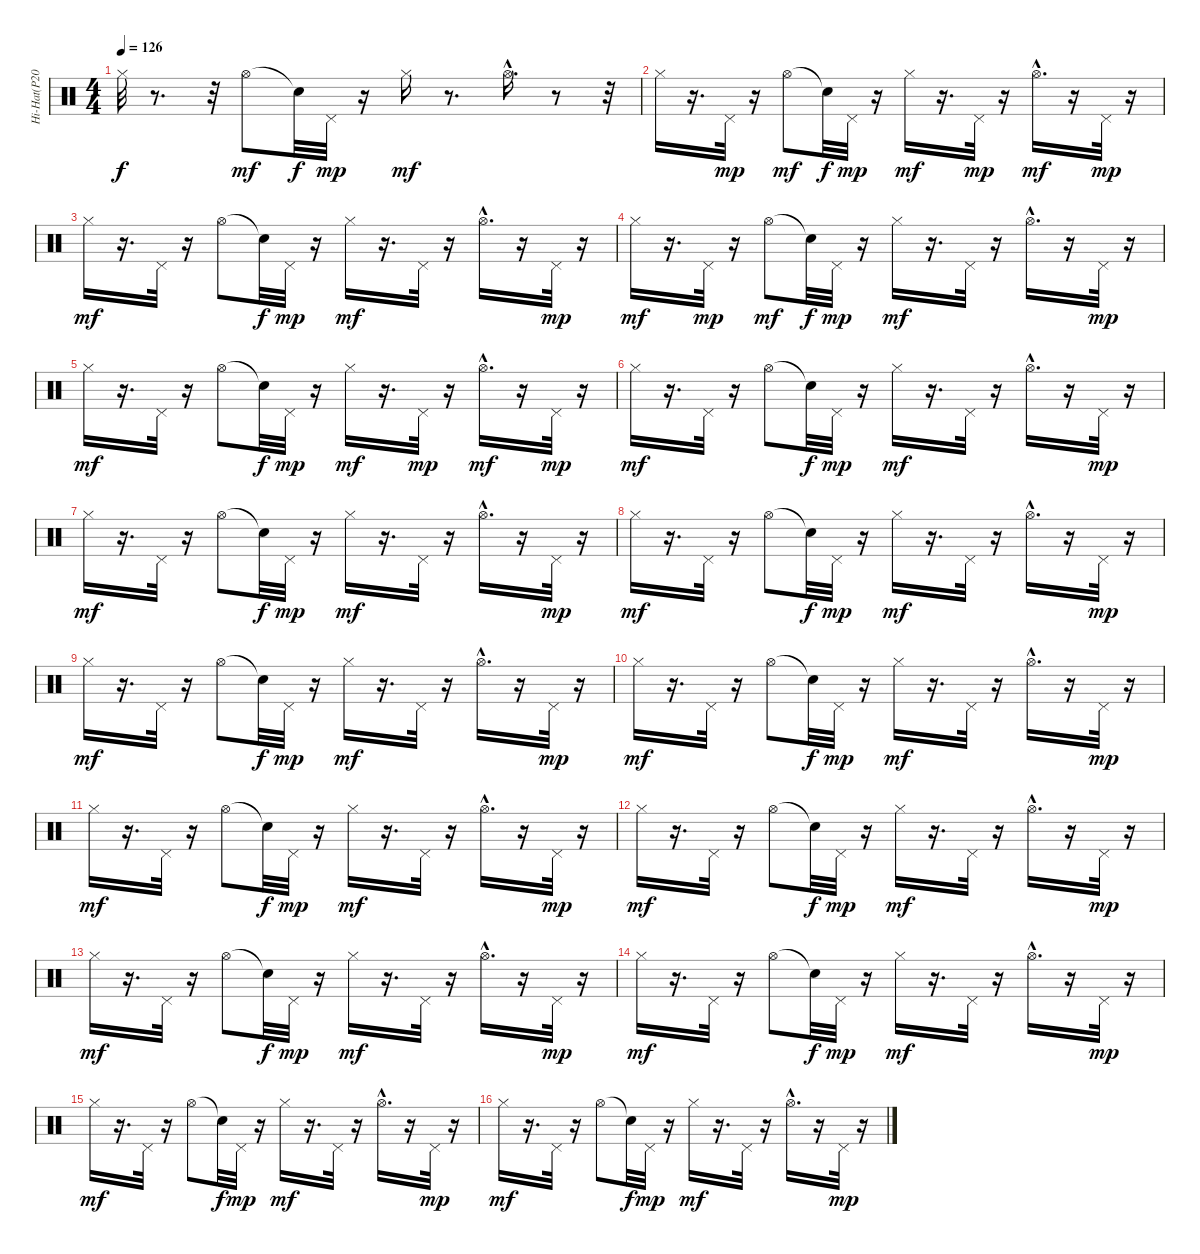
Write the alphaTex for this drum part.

\track ("Hi-Hat(P201)" "Hi-Hat(P20") {instrument percussion}
\staff {score}
\articulation defaults
\ts (4 4)
\tempo 126
\clef neutral
\ks c "Hi-Hat (closed)".32{dy f}
r.8{d} r.32 "Hi-Hat (open)".8{dy mf} "Snare (hit)"{t}.32{dy f} "Pedal Hi-Hat (hit)".32{dy mp} r.16 "Hi-Hat (closed)".16{dy mf} r.8{d} "Hi-Hat (open)"{hac}.16{d} r.8 r.32 |
"Hi-Hat (closed)".16 r.16{d} "Pedal Hi-Hat (hit)".32{dy mp} r.16 "Hi-Hat (open)".8{dy mf} "Snare (hit)"{t}.32{dy f} "Pedal Hi-Hat (hit)".32{dy mp} r.16 "Hi-Hat (closed)".16{dy mf} r.16{d} "Pedal Hi-Hat (hit)".32{dy mp} r.16 "Hi-Hat (open)"{hac}.16{d dy mf} r.16 "Pedal Hi-Hat (hit)".32{dy mp} r.16 |
"Hi-Hat (closed)".16{dy mf} r.16{d} "Pedal Hi-Hat (hit)".32 r.16 "Hi-Hat (open)".8 "Snare (hit)"{t}.32{dy f} "Pedal Hi-Hat (hit)".32{dy mp} r.16 "Hi-Hat (closed)".16{dy mf} r.16{d} "Pedal Hi-Hat (hit)".32 r.16 "Hi-Hat (open)"{hac}.16{d} r.16 "Pedal Hi-Hat (hit)".32{dy mp} r.16 |
"Hi-Hat (closed)".16{dy mf} r.16{d} "Pedal Hi-Hat (hit)".32{dy mp} r.16 "Hi-Hat (open)".8{dy mf} "Snare (hit)"{t}.32{dy f} "Pedal Hi-Hat (hit)".32{dy mp} r.16 "Hi-Hat (closed)".16{dy mf} r.16{d} "Pedal Hi-Hat (hit)".32 r.16 "Hi-Hat (open)"{hac}.16{d} r.16 "Pedal Hi-Hat (hit)".32{dy mp} r.16 |
"Hi-Hat (closed)".16{dy mf} r.16{d} "Pedal Hi-Hat (hit)".32 r.16 "Hi-Hat (open)".8 "Snare (hit)"{t}.32{dy f} "Pedal Hi-Hat (hit)".32{dy mp} r.16 "Hi-Hat (closed)".16{dy mf} r.16{d} "Pedal Hi-Hat (hit)".32{dy mp} r.16 "Hi-Hat (open)"{hac}.16{d dy mf} r.16 "Pedal Hi-Hat (hit)".32{dy mp} r.16 |
"Hi-Hat (closed)".16{dy mf} r.16{d} "Pedal Hi-Hat (hit)".32 r.16 "Hi-Hat (open)".8 "Snare (hit)"{t}.32{dy f} "Pedal Hi-Hat (hit)".32{dy mp} r.16 "Hi-Hat (closed)".16{dy mf} r.16{d} "Pedal Hi-Hat (hit)".32 r.16 "Hi-Hat (open)"{hac}.16{d} r.16 "Pedal Hi-Hat (hit)".32{dy mp} r.16 |
"Hi-Hat (closed)".16{dy mf} r.16{d} "Pedal Hi-Hat (hit)".32 r.16 "Hi-Hat (open)".8 "Snare (hit)"{t}.32{dy f} "Pedal Hi-Hat (hit)".32{dy mp} r.16 "Hi-Hat (closed)".16{dy mf} r.16{d} "Pedal Hi-Hat (hit)".32 r.16 "Hi-Hat (open)"{hac}.16{d} r.16 "Pedal Hi-Hat (hit)".32{dy mp} r.16 |
"Hi-Hat (closed)".16{dy mf} r.16{d} "Pedal Hi-Hat (hit)".32 r.16 "Hi-Hat (open)".8 "Snare (hit)"{t}.32{dy f} "Pedal Hi-Hat (hit)".32{dy mp} r.16 "Hi-Hat (closed)".16{dy mf} r.16{d} "Pedal Hi-Hat (hit)".32 r.16 "Hi-Hat (open)"{hac}.16{d} r.16 "Pedal Hi-Hat (hit)".32{dy mp} r.16 |
"Hi-Hat (closed)".16{dy mf} r.16{d} "Pedal Hi-Hat (hit)".32 r.16 "Hi-Hat (open)".8 "Snare (hit)"{t}.32{dy f} "Pedal Hi-Hat (hit)".32{dy mp} r.16 "Hi-Hat (closed)".16{dy mf} r.16{d} "Pedal Hi-Hat (hit)".32 r.16 "Hi-Hat (open)"{hac}.16{d} r.16 "Pedal Hi-Hat (hit)".32{dy mp} r.16 |
"Hi-Hat (closed)".16{dy mf} r.16{d} "Pedal Hi-Hat (hit)".32 r.16 "Hi-Hat (open)".8 "Snare (hit)"{t}.32{dy f} "Pedal Hi-Hat (hit)".32{dy mp} r.16 "Hi-Hat (closed)".16{dy mf} r.16{d} "Pedal Hi-Hat (hit)".32 r.16 "Hi-Hat (open)"{hac}.16{d} r.16 "Pedal Hi-Hat (hit)".32{dy mp} r.16 |
"Hi-Hat (closed)".16{dy mf} r.16{d} "Pedal Hi-Hat (hit)".32 r.16 "Hi-Hat (open)".8 "Snare (hit)"{t}.32{dy f} "Pedal Hi-Hat (hit)".32{dy mp} r.16 "Hi-Hat (closed)".16{dy mf} r.16{d} "Pedal Hi-Hat (hit)".32 r.16 "Hi-Hat (open)"{hac}.16{d} r.16 "Pedal Hi-Hat (hit)".32{dy mp} r.16 |
"Hi-Hat (closed)".16{dy mf} r.16{d} "Pedal Hi-Hat (hit)".32 r.16 "Hi-Hat (open)".8 "Snare (hit)"{t}.32{dy f} "Pedal Hi-Hat (hit)".32{dy mp} r.16 "Hi-Hat (closed)".16{dy mf} r.16{d} "Pedal Hi-Hat (hit)".32 r.16 "Hi-Hat (open)"{hac}.16{d} r.16 "Pedal Hi-Hat (hit)".32{dy mp} r.16 |
"Hi-Hat (closed)".16{dy mf} r.16{d} "Pedal Hi-Hat (hit)".32 r.16 "Hi-Hat (open)".8 "Snare (hit)"{t}.32{dy f} "Pedal Hi-Hat (hit)".32{dy mp} r.16 "Hi-Hat (closed)".16{dy mf} r.16{d} "Pedal Hi-Hat (hit)".32 r.16 "Hi-Hat (open)"{hac}.16{d} r.16 "Pedal Hi-Hat (hit)".32{dy mp} r.16 |
"Hi-Hat (closed)".16{dy mf} r.16{d} "Pedal Hi-Hat (hit)".32 r.16 "Hi-Hat (open)".8 "Snare (hit)"{t}.32{dy f} "Pedal Hi-Hat (hit)".32{dy mp} r.16 "Hi-Hat (closed)".16{dy mf} r.16{d} "Pedal Hi-Hat (hit)".32 r.16 "Hi-Hat (open)"{hac}.16{d} r.16 "Pedal Hi-Hat (hit)".32{dy mp} r.16 |
"Hi-Hat (closed)".16{dy mf} r.16{d} "Pedal Hi-Hat (hit)".32 r.16 "Hi-Hat (open)".8 "Snare (hit)"{t}.32{dy f} "Pedal Hi-Hat (hit)".32{dy mp} r.16 "Hi-Hat (closed)".16{dy mf} r.16{d} "Pedal Hi-Hat (hit)".32 r.16 "Hi-Hat (open)"{hac}.16{d} r.16 "Pedal Hi-Hat (hit)".32{dy mp} r.16 |
"Hi-Hat (closed)".16{dy mf} r.16{d} "Pedal Hi-Hat (hit)".32 r.16 "Hi-Hat (open)".8 "Snare (hit)"{t}.32{dy f} "Pedal Hi-Hat (hit)".32{dy mp} r.16 "Hi-Hat (closed)".16{dy mf} r.16{d} "Pedal Hi-Hat (hit)".32 r.16 "Hi-Hat (open)"{hac}.16{d} r.16 "Pedal Hi-Hat (hit)".32{dy mp} r.16
